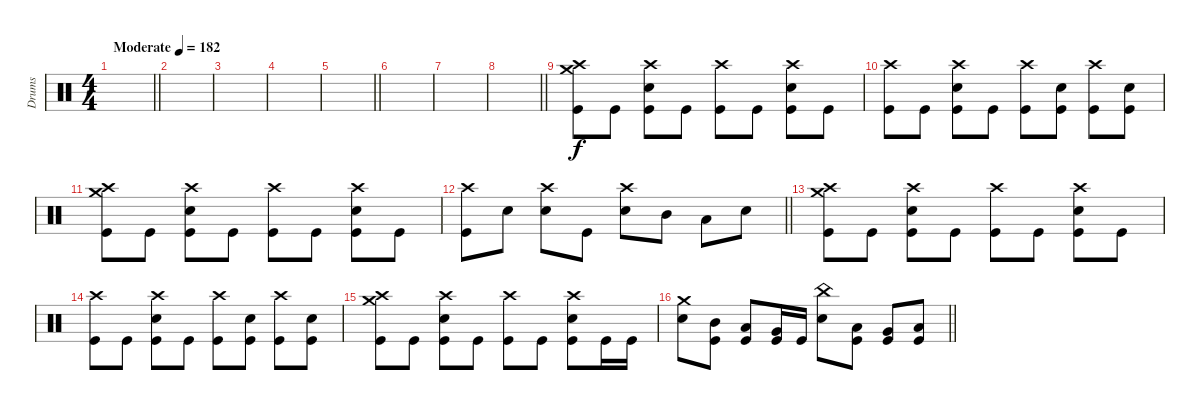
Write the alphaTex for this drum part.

\track ("Drums" "Drums") {instrument percussion}
\staff
\articulation defaults
\ts (4 4)
\tempo (182 "Moderate")
\clef neutral
\barLineRight lightlight
\ks c
|
|
|
|
\barLineRight lightlight
|
|
|
\barLineRight lightlight
|
\section ("" "")
("Crash high (hit)" "Crash medium (hit)" "Kick (hit)").8 "Kick (hit)".8 ("Crash high (hit)" "Electric Snare (hit)" "Kick (hit)").8 "Kick (hit)".8 ("Crash high (hit)" "Kick (hit)").8 "Kick (hit)".8 ("Crash high (hit)" "Electric Snare (hit)" "Kick (hit)").8 "Kick (hit)".8 |
("Crash high (hit)" "Kick (hit)").8 "Kick (hit)".8 ("Crash high (hit)" "Electric Snare (hit)" "Kick (hit)").8 "Kick (hit)".8 ("Crash high (hit)" "Kick (hit)").8 ("Electric Snare (hit)" "Kick (hit)").8 ("Crash high (hit)" "Kick (hit)").8 ("Electric Snare (hit)" "Kick (hit)").8 |
("Crash high (hit)" "Crash medium (hit)" "Kick (hit)").8 "Kick (hit)".8 ("Crash high (hit)" "Electric Snare (hit)" "Kick (hit)").8 "Kick (hit)".8 ("Crash high (hit)" "Kick (hit)").8 "Kick (hit)".8 ("Crash high (hit)" "Electric Snare (hit)" "Kick (hit)").8 "Kick (hit)".8 |
\barLineRight lightlight
("Crash high (hit)" "Kick (hit)").8 "Electric Snare (hit)".8 ("Crash high (hit)" "Electric Snare (hit)").8 "Kick (hit)".8 ("Crash high (hit)" "Electric Snare (hit)").8 "Mid Tom (hit)".8 "Low Tom (hit)".8 "Electric Snare (hit)".8 |
("Crash high (hit)" "Crash medium (hit)" "Kick (hit)").8 "Kick (hit)".8 ("Crash high (hit)" "Electric Snare (hit)" "Kick (hit)").8 "Kick (hit)".8 ("Crash high (hit)" "Kick (hit)").8 "Kick (hit)".8 ("Crash high (hit)" "Electric Snare (hit)" "Kick (hit)").8 "Kick (hit)".8 |
("Crash high (hit)" "Kick (hit)").8 "Kick (hit)".8 ("Crash high (hit)" "Electric Snare (hit)" "Kick (hit)").8 "Kick (hit)".8 ("Crash high (hit)" "Kick (hit)").8 ("Electric Snare (hit)" "Kick (hit)").8 ("Crash high (hit)" "Kick (hit)").8 ("Electric Snare (hit)" "Kick (hit)").8 |
("Crash high (hit)" "Crash medium (hit)" "Kick (hit)").8 "Kick (hit)".8 ("Crash high (hit)" "Electric Snare (hit)" "Kick (hit)").8 "Kick (hit)".8 ("Crash high (hit)" "Kick (hit)").8 "Kick (hit)".8 ("Crash high (hit)" "Electric Snare (hit)" "Kick (hit)").8 "Kick (hit)".16 "Kick (hit)".16 |
\barLineRight lightlight
("Crash medium (hit)" "Electric Snare (hit)").8 ("Mid Tom (hit)" "Kick (hit)").8 ("Low Tom (hit)" "Kick (hit)").8 ("Very Low Tom (hit)" "Kick (hit)").16 "Kick (hit)".16 ("China (hit)" "Electric Snare (hit)").8 ("Low Tom (hit)" "Kick (hit)").8 ("Very Low Tom (hit)" "Kick (hit)").8 ("Low Floor Tom (hit)" "Kick (hit)").8
